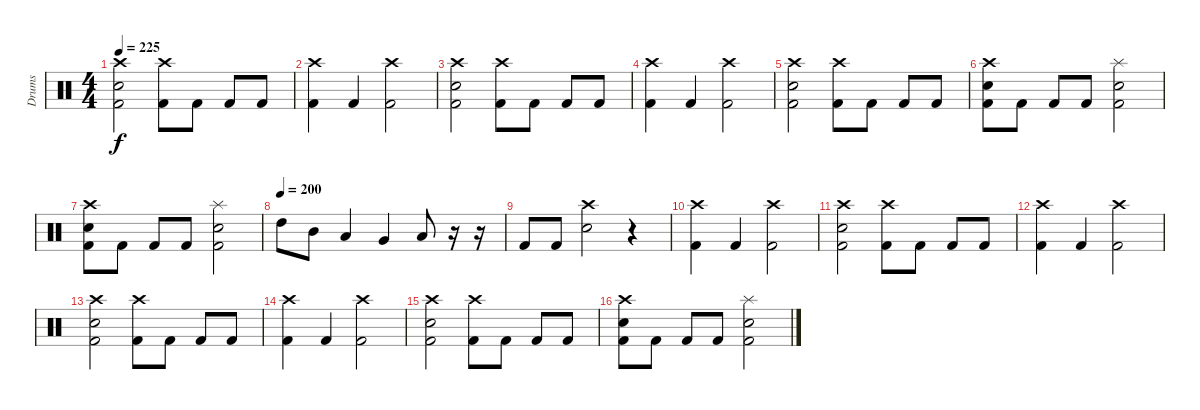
\track ("Drums" "Drums") {instrument percussion}
\staff {score}
\articulation defaults
\ts (4 4)
\tempo 225
\clef neutral
\ks c
("Crash high (hit)" "Snare (hit) 2" "Kick (hit) 2").2{dy f} ("Crash high (hit)" "Kick (hit) 2").8 "Kick (hit) 2".8 "Kick (hit) 2".8 "Kick (hit) 2".8 |
("Crash high (hit)" "Kick (hit) 2").4 "Kick (hit) 2".4 ("Crash high (hit)" "Kick (hit) 2").2 |
("Crash high (hit)" "Snare (hit) 2" "Kick (hit) 2").2 ("Crash high (hit)" "Kick (hit) 2").8 "Kick (hit) 2".8 "Kick (hit) 2".8 "Kick (hit) 2".8 |
("Crash high (hit)" "Kick (hit) 2").4 "Kick (hit) 2".4 ("Crash high (hit)" "Kick (hit) 2").2 |
("Crash high (hit)" "Snare (hit) 2" "Kick (hit) 2").2 ("Crash high (hit)" "Kick (hit) 2").8 "Kick (hit) 2".8 "Kick (hit) 2".8 "Kick (hit) 2".8 |
("Crash high (hit)" "Snare (hit) 2" "Kick (hit) 2").8 "Kick (hit) 2".8 "Kick (hit) 2".8 "Kick (hit) 2".8 ("Splash (hit)" "Snare (hit) 2" "Kick (hit) 2").2 |
("Crash high (hit)" "Snare (hit) 2" "Kick (hit) 2").8 "Kick (hit) 2".8 "Kick (hit) 2".8 "Kick (hit) 2".8 ("Splash (hit)" "Snare (hit) 2" "Kick (hit) 2").2 |
\tempo (200)
"High Tom (hit)".8 "Mid Tom (hit)".8 "Low Tom (hit)".4 "Very Low Tom (hit)".4 "Low Tom (hit)".8 r.16 r.16 |
"Kick (hit) 2".8 "Kick (hit) 2".8 ("Crash high (hit)" "Snare (hit) 2").2 r.4 |
("Crash high (hit)" "Kick (hit) 2").4 "Kick (hit) 2".4 ("Crash high (hit)" "Kick (hit) 2").2 |
("Crash high (hit)" "Snare (hit) 2" "Kick (hit) 2").2 ("Crash high (hit)" "Kick (hit) 2").8 "Kick (hit) 2".8 "Kick (hit) 2".8 "Kick (hit) 2".8 |
("Crash high (hit)" "Kick (hit) 2").4 "Kick (hit) 2".4 ("Crash high (hit)" "Kick (hit) 2").2 |
("Crash high (hit)" "Snare (hit) 2" "Kick (hit) 2").2 ("Crash high (hit)" "Kick (hit) 2").8 "Kick (hit) 2".8 "Kick (hit) 2".8 "Kick (hit) 2".8 |
("Crash high (hit)" "Kick (hit) 2").4 "Kick (hit) 2".4 ("Crash high (hit)" "Kick (hit) 2").2 |
("Crash high (hit)" "Snare (hit) 2" "Kick (hit) 2").2 ("Crash high (hit)" "Kick (hit) 2").8 "Kick (hit) 2".8 "Kick (hit) 2".8 "Kick (hit) 2".8 |
("Crash high (hit)" "Snare (hit) 2" "Kick (hit) 2").8 "Kick (hit) 2".8 "Kick (hit) 2".8 "Kick (hit) 2".8 ("Splash (hit)" "Snare (hit) 2" "Kick (hit) 2").2
